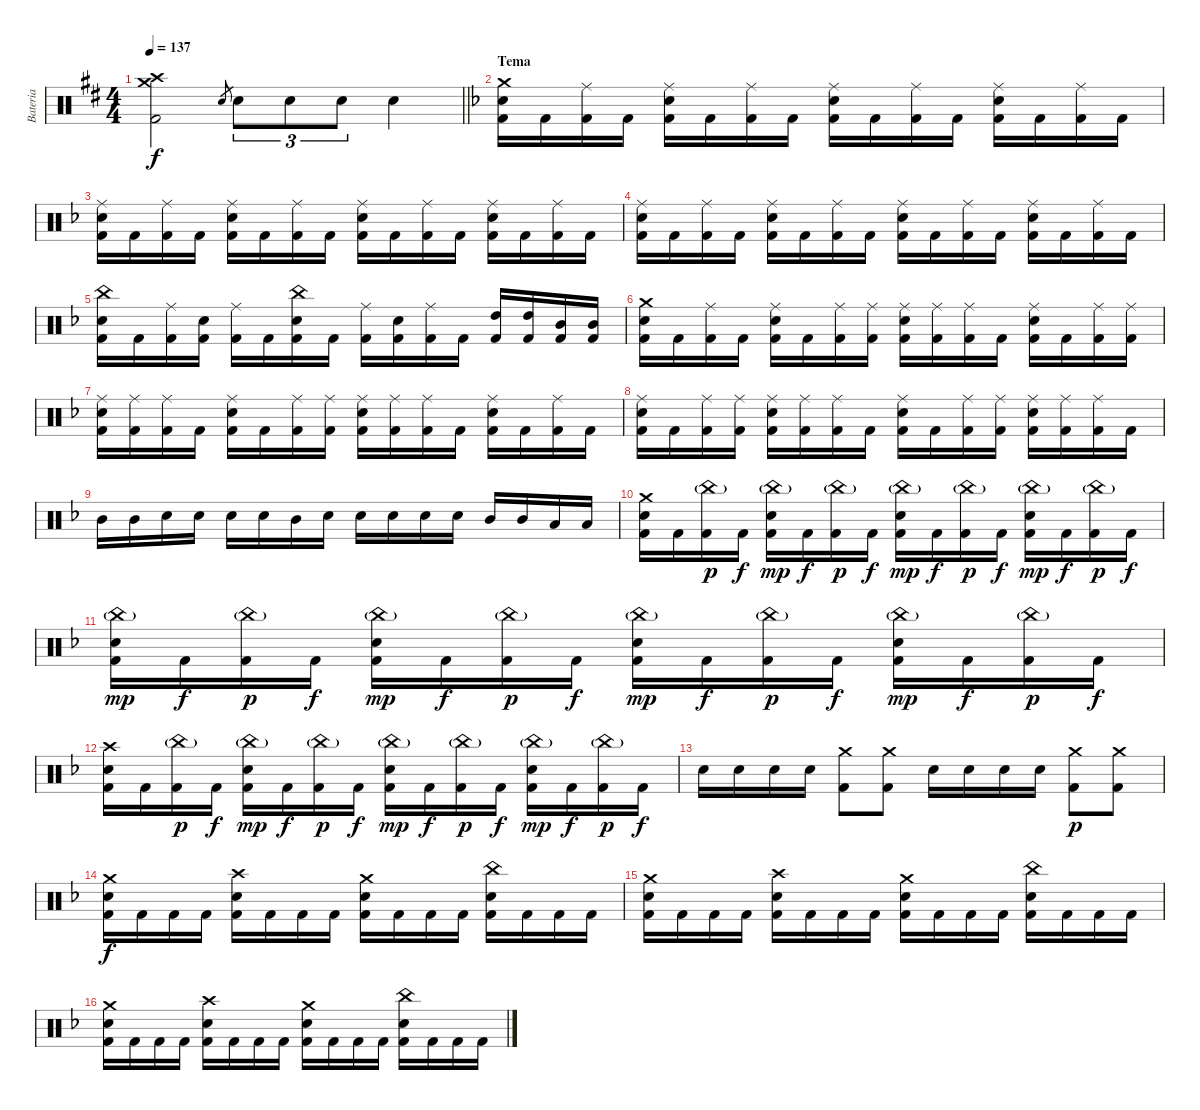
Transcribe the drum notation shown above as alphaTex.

\track ("Bateria" "Bateria") {instrument percussion}
\staff {score}
\articulation defaults
\ts (4 4)
\tempo 137
\clef neutral
\barLineRight lightlight
\ks bminor
("Crash medium (hit)" "Crash high (hit)" "Kick (hit) 2").2{dy f} "Electric Snare (hit)".8{gr} "Electric Snare (hit)".8{tu (3 2)} "Electric Snare (hit)".8{tu (3 2)} "Electric Snare (hit)".8{tu (3 2)} "Electric Snare (hit)".4 |
\section ("" "Tema")
\ks dminor
("Crash medium (hit)" "Electric Snare (hit)" "Kick (hit) 2").16 "Kick (hit) 2".16 ("Ride (middle)" "Kick (hit) 2").16 "Kick (hit) 2".16 ("Ride (middle)" "Electric Snare (hit)" "Kick (hit) 2").16 "Kick (hit) 2".16 ("Ride (middle)" "Kick (hit) 2").16 "Kick (hit) 2".16 ("Ride (middle)" "Electric Snare (hit)" "Kick (hit) 2").16 "Kick (hit) 2".16 ("Ride (middle)" "Kick (hit) 2").16 "Kick (hit) 2".16 ("Ride (middle)" "Electric Snare (hit)" "Kick (hit) 2").16 "Kick (hit) 2".16 ("Ride (middle)" "Kick (hit) 2").16 "Kick (hit) 2".16 |
("Ride (middle)" "Electric Snare (hit)" "Kick (hit) 2").16 "Kick (hit) 2".16 ("Ride (middle)" "Kick (hit) 2").16 "Kick (hit) 2".16 ("Ride (middle)" "Electric Snare (hit)" "Kick (hit) 2").16 "Kick (hit) 2".16 ("Ride (middle)" "Kick (hit) 2").16 "Kick (hit) 2".16 ("Ride (middle)" "Electric Snare (hit)" "Kick (hit) 2").16 "Kick (hit) 2".16 ("Ride (middle)" "Kick (hit) 2").16 "Kick (hit) 2".16 ("Ride (middle)" "Electric Snare (hit)" "Kick (hit) 2").16 "Kick (hit) 2".16 ("Ride (middle)" "Kick (hit) 2").16 "Kick (hit) 2".16 |
("Ride (middle)" "Electric Snare (hit)" "Kick (hit) 2").16 "Kick (hit) 2".16 ("Ride (middle)" "Kick (hit) 2").16 "Kick (hit) 2".16 ("Ride (middle)" "Electric Snare (hit)" "Kick (hit) 2").16 "Kick (hit) 2".16 ("Ride (middle)" "Kick (hit) 2").16 "Kick (hit) 2".16 ("Ride (middle)" "Electric Snare (hit)" "Kick (hit) 2").16 "Kick (hit) 2".16 ("Ride (middle)" "Kick (hit) 2").16 "Kick (hit) 2".16 ("Ride (middle)" "Electric Snare (hit)" "Kick (hit) 2").16 "Kick (hit) 2".16 ("Ride (middle)" "Kick (hit) 2").16 "Kick (hit) 2".16 |
("China (hit)" "Electric Snare (hit)" "Kick (hit) 2").16 "Kick (hit) 2".16 ("Ride (middle)" "Kick (hit) 2").16 ("Electric Snare (hit)" "Kick (hit) 2").16 ("Ride (middle)" "Kick (hit) 2").16 "Kick (hit) 2".16 ("China (hit)" "Electric Snare (hit)" "Kick (hit) 2").16 "Kick (hit) 2".16 ("Ride (middle)" "Kick (hit) 2").16 ("Electric Snare (hit)" "Kick (hit) 2").16 ("Ride (middle)" "Kick (hit) 2").16 "Kick (hit) 2".16 ("High Tom (hit)" "Kick (hit) 2").16 ("High Tom (hit)" "Kick (hit) 2").16 ("Mid Tom (hit)" "Kick (hit) 2").16 ("Mid Tom (hit)" "Kick (hit) 2").16 |
("Crash medium (hit)" "Electric Snare (hit)" "Kick (hit) 2").16 "Kick (hit) 2".16 ("Ride (middle)" "Kick (hit) 2").16 "Kick (hit) 2".16 ("Ride (middle)" "Electric Snare (hit)" "Kick (hit) 2").16 "Kick (hit) 2".16 ("Ride (middle)" "Kick (hit) 2").16 ("Ride (middle)" "Kick (hit) 2").16 ("Ride (middle)" "Electric Snare (hit)" "Kick (hit) 2").16 ("Ride (middle)" "Kick (hit) 2").16 ("Ride (middle)" "Kick (hit) 2").16 "Kick (hit) 2".16 ("Ride (middle)" "Electric Snare (hit)" "Kick (hit) 2").16 "Kick (hit) 2".16 ("Ride (middle)" "Kick (hit) 2").16 ("Ride (middle)" "Kick (hit) 2").16 |
("Ride (middle)" "Electric Snare (hit)" "Kick (hit) 2").16 ("Ride (middle)" "Kick (hit) 2").16 ("Ride (middle)" "Kick (hit) 2").16 "Kick (hit) 2".16 ("Ride (middle)" "Electric Snare (hit)" "Kick (hit) 2").16 "Kick (hit) 2".16 ("Ride (middle)" "Kick (hit) 2").16 ("Ride (middle)" "Kick (hit) 2").16 ("Ride (middle)" "Electric Snare (hit)" "Kick (hit) 2").16 ("Ride (middle)" "Kick (hit) 2").16 ("Ride (middle)" "Kick (hit) 2").16 "Kick (hit) 2".16 ("Ride (middle)" "Electric Snare (hit)" "Kick (hit) 2").16 "Kick (hit) 2".16 ("Ride (middle)" "Kick (hit) 2").16 "Kick (hit) 2".16 |
("Ride (middle)" "Electric Snare (hit)" "Kick (hit) 2").16 "Kick (hit) 2".16 ("Ride (middle)" "Kick (hit) 2").16 ("Ride (middle)" "Kick (hit) 2").16 ("Ride (middle)" "Electric Snare (hit)" "Kick (hit) 2").16 ("Ride (middle)" "Kick (hit) 2").16 ("Ride (middle)" "Kick (hit) 2").16 "Kick (hit) 2".16 ("Ride (middle)" "Electric Snare (hit)" "Kick (hit) 2").16 "Kick (hit) 2".16 ("Ride (middle)" "Kick (hit) 2").16 ("Ride (middle)" "Kick (hit) 2").16 ("Ride (middle)" "Electric Snare (hit)" "Kick (hit) 2").16 ("Ride (middle)" "Kick (hit) 2").16 ("Ride (middle)" "Kick (hit) 2").16 "Kick (hit) 2".16 |
"Mid Tom (hit)".16 "Mid Tom (hit)".16 "Electric Snare (hit)".16 "Electric Snare (hit)".16 "Electric Snare (hit)".16 "Electric Snare (hit)".16 "Mid Tom (hit)".16 "Electric Snare (hit)".16 "Electric Snare (hit)".16 "Electric Snare (hit)".16 "Electric Snare (hit)".16 "Electric Snare (hit)".16 "Mid Tom (hit)".16 "Mid Tom (hit)".16 "Low Tom (hit)".16 "Low Tom (hit)".16 |
("Crash medium (hit)" "Electric Snare (hit)" "Kick (hit) 2").16 "Kick (hit) 2".16 ("China (hit)"{g} "Kick (hit) 2").16{dy p} "Kick (hit) 2".16{dy f} ("China (hit)"{g} "Electric Snare (hit)" "Kick (hit) 2").16{dy mp} "Kick (hit) 2".16{dy f} ("China (hit)"{g} "Kick (hit) 2").16{dy p} "Kick (hit) 2".16{dy f} ("China (hit)"{g} "Electric Snare (hit)" "Kick (hit) 2").16{dy mp} "Kick (hit) 2".16{dy f} ("China (hit)"{g} "Kick (hit) 2").16{dy p} "Kick (hit) 2".16{dy f} ("China (hit)"{g} "Electric Snare (hit)" "Kick (hit) 2").16{dy mp} "Kick (hit) 2".16{dy f} ("China (hit)"{g} "Kick (hit) 2").16{dy p} "Kick (hit) 2".16{dy f} |
("China (hit)"{g} "Electric Snare (hit)" "Kick (hit) 2").16{dy mp} "Kick (hit) 2".16{dy f} ("China (hit)"{g} "Kick (hit) 2").16{dy p} "Kick (hit) 2".16{dy f} ("China (hit)"{g} "Electric Snare (hit)" "Kick (hit) 2").16{dy mp} "Kick (hit) 2".16{dy f} ("China (hit)"{g} "Kick (hit) 2").16{dy p} "Kick (hit) 2".16{dy f} ("China (hit)"{g} "Electric Snare (hit)" "Kick (hit) 2").16{dy mp} "Kick (hit) 2".16{dy f} ("China (hit)"{g} "Kick (hit) 2").16{dy p} "Kick (hit) 2".16{dy f} ("China (hit)"{g} "Electric Snare (hit)" "Kick (hit) 2").16{dy mp} "Kick (hit) 2".16{dy f} ("China (hit)"{g} "Kick (hit) 2").16{dy p} "Kick (hit) 2".16{dy f} |
("Crash high (hit)" "Electric Snare (hit)" "Kick (hit) 2").16 "Kick (hit) 2".16 ("China (hit)"{g} "Kick (hit) 2").16{dy p} "Kick (hit) 2".16{dy f} ("China (hit)"{g} "Electric Snare (hit)" "Kick (hit) 2").16{dy mp} "Kick (hit) 2".16{dy f} ("China (hit)"{g} "Kick (hit) 2").16{dy p} "Kick (hit) 2".16{dy f} ("China (hit)"{g} "Electric Snare (hit)" "Kick (hit) 2").16{dy mp} "Kick (hit) 2".16{dy f} ("China (hit)"{g} "Kick (hit) 2").16{dy p} "Kick (hit) 2".16{dy f} ("China (hit)"{g} "Electric Snare (hit)" "Kick (hit) 2").16{dy mp} "Kick (hit) 2".16{dy f} ("China (hit)"{g} "Kick (hit) 2").16{dy p} "Kick (hit) 2".16{dy f} |
"Electric Snare (hit)".16 "Electric Snare (hit)".16 "Electric Snare (hit)".16 "Electric Snare (hit)".16 ("Crash medium (hit)" "Kick (hit) 2").8 ("Crash medium (hit)" "Kick (hit) 2").8 "Electric Snare (hit)".16 "Electric Snare (hit)".16 "Electric Snare (hit)".16 "Electric Snare (hit)".16 ("Crash medium (hit)" "Kick (hit) 2").8{dy p} ("Crash medium (hit)" "Kick (hit) 2").8 |
("Crash medium (hit)" "Electric Snare (hit)" "Kick (hit) 2").16{dy f} "Kick (hit) 2".16 "Kick (hit) 2".16 "Kick (hit) 2".16 ("Crash high (hit)" "Electric Snare (hit)" "Kick (hit) 2").16 "Kick (hit) 2".16 "Kick (hit) 2".16 "Kick (hit) 2".16 ("Crash medium (hit)" "Electric Snare (hit)" "Kick (hit) 2").16 "Kick (hit) 2".16 "Kick (hit) 2".16 "Kick (hit) 2".16 ("China (hit)" "Electric Snare (hit)" "Kick (hit) 2").16 "Kick (hit) 2".16 "Kick (hit) 2".16 "Kick (hit) 2".16 |
("Crash medium (hit)" "Electric Snare (hit)" "Kick (hit) 2").16 "Kick (hit) 2".16 "Kick (hit) 2".16 "Kick (hit) 2".16 ("Crash high (hit)" "Electric Snare (hit)" "Kick (hit) 2").16 "Kick (hit) 2".16 "Kick (hit) 2".16 "Kick (hit) 2".16 ("Crash medium (hit)" "Electric Snare (hit)" "Kick (hit) 2").16 "Kick (hit) 2".16 "Kick (hit) 2".16 "Kick (hit) 2".16 ("China (hit)" "Electric Snare (hit)" "Kick (hit) 2").16 "Kick (hit) 2".16 "Kick (hit) 2".16 "Kick (hit) 2".16 |
("Crash medium (hit)" "Electric Snare (hit)" "Kick (hit) 2").16 "Kick (hit) 2".16 "Kick (hit) 2".16 "Kick (hit) 2".16 ("Crash high (hit)" "Electric Snare (hit)" "Kick (hit) 2").16 "Kick (hit) 2".16 "Kick (hit) 2".16 "Kick (hit) 2".16 ("Crash medium (hit)" "Electric Snare (hit)" "Kick (hit) 2").16 "Kick (hit) 2".16 "Kick (hit) 2".16 "Kick (hit) 2".16 ("China (hit)" "Electric Snare (hit)" "Kick (hit) 2").16 "Kick (hit) 2".16 "Kick (hit) 2".16 "Kick (hit) 2".16
